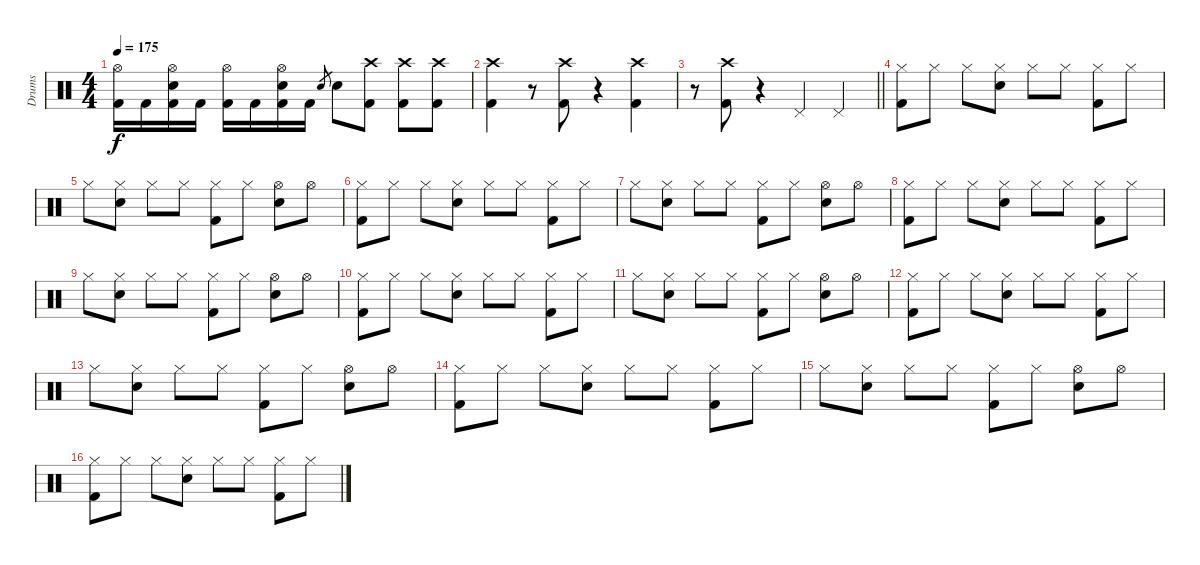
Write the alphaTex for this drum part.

\track ("Drums" "Drums") {instrument percussion}
\staff {score}
\articulation defaults
\ts (4 4)
\tempo 175
\clef neutral
\ks c
("Hi-Hat (open)" "Kick (hit) 2").16{dy f} "Kick (hit) 2".16 ("Hi-Hat (open)" "Snare (hit) 2" "Kick (hit) 2").16 "Kick (hit) 2".16 ("Hi-Hat (open)" "Kick (hit) 2").16 "Kick (hit) 2".16 ("Hi-Hat (open)" "Snare (hit) 2" "Kick (hit) 2").16 "Kick (hit) 2".16 "Snare (hit) 2".8{gr} "Snare (hit) 2".8 ("Crash high (hit)" "Kick (hit) 2").8 ("Crash high (hit)" "Kick (hit) 2").8 ("Crash high (hit)" "Kick (hit) 2").8 |
("Crash high (hit)" "Kick (hit) 2").4 r.8 ("Crash high (hit)" "Kick (hit) 2").8 r.4 ("Crash high (hit)" "Kick (hit) 2").4 |
\barLineRight lightlight
r.8 ("Crash high (hit)" "Kick (hit) 2").8 r.4 "Pedal Hi-Hat (hit)".4 "Pedal Hi-Hat (hit)".4 |
("Hi-Hat (closed)" "Kick (hit) 2").8 "Hi-Hat (closed)".8 "Hi-Hat (closed)".8 ("Hi-Hat (closed)" "Snare (hit) 2").8 "Hi-Hat (closed)".8 "Hi-Hat (closed)".8 ("Hi-Hat (closed)" "Kick (hit) 2").8 "Hi-Hat (closed)".8 |
"Hi-Hat (closed)".8 ("Hi-Hat (closed)" "Snare (hit) 2").8 "Hi-Hat (closed)".8 "Hi-Hat (closed)".8 ("Hi-Hat (closed)" "Kick (hit) 2").8 "Hi-Hat (closed)".8 ("Hi-Hat (open)" "Snare (hit) 2").8 "Hi-Hat (open)".8 |
("Hi-Hat (closed)" "Kick (hit) 2").8 "Hi-Hat (closed)".8 "Hi-Hat (closed)".8 ("Hi-Hat (closed)" "Snare (hit) 2").8 "Hi-Hat (closed)".8 "Hi-Hat (closed)".8 ("Hi-Hat (closed)" "Kick (hit) 2").8 "Hi-Hat (closed)".8 |
"Hi-Hat (closed)".8 ("Hi-Hat (closed)" "Snare (hit) 2").8 "Hi-Hat (closed)".8 "Hi-Hat (closed)".8 ("Hi-Hat (closed)" "Kick (hit) 2").8 "Hi-Hat (closed)".8 ("Hi-Hat (open)" "Snare (hit) 2").8 "Hi-Hat (open)".8 |
("Hi-Hat (closed)" "Kick (hit) 2").8 "Hi-Hat (closed)".8 "Hi-Hat (closed)".8 ("Hi-Hat (closed)" "Snare (hit) 2").8 "Hi-Hat (closed)".8 "Hi-Hat (closed)".8 ("Hi-Hat (closed)" "Kick (hit) 2").8 "Hi-Hat (closed)".8 |
"Hi-Hat (closed)".8 ("Hi-Hat (closed)" "Snare (hit) 2").8 "Hi-Hat (closed)".8 "Hi-Hat (closed)".8 ("Hi-Hat (closed)" "Kick (hit) 2").8 "Hi-Hat (closed)".8 ("Hi-Hat (open)" "Snare (hit) 2").8 "Hi-Hat (open)".8 |
("Hi-Hat (closed)" "Kick (hit) 2").8 "Hi-Hat (closed)".8 "Hi-Hat (closed)".8 ("Hi-Hat (closed)" "Snare (hit) 2").8 "Hi-Hat (closed)".8 "Hi-Hat (closed)".8 ("Hi-Hat (closed)" "Kick (hit) 2").8 "Hi-Hat (closed)".8 |
"Hi-Hat (closed)".8 ("Hi-Hat (closed)" "Snare (hit) 2").8 "Hi-Hat (closed)".8 "Hi-Hat (closed)".8 ("Hi-Hat (closed)" "Kick (hit) 2").8 "Hi-Hat (closed)".8 ("Hi-Hat (open)" "Snare (hit) 2").8 "Hi-Hat (open)".8 |
("Hi-Hat (closed)" "Kick (hit) 2").8 "Hi-Hat (closed)".8 "Hi-Hat (closed)".8 ("Hi-Hat (closed)" "Snare (hit) 2").8 "Hi-Hat (closed)".8 "Hi-Hat (closed)".8 ("Hi-Hat (closed)" "Kick (hit) 2").8 "Hi-Hat (closed)".8 |
"Hi-Hat (closed)".8 ("Hi-Hat (closed)" "Snare (hit) 2").8 "Hi-Hat (closed)".8 "Hi-Hat (closed)".8 ("Hi-Hat (closed)" "Kick (hit) 2").8 "Hi-Hat (closed)".8 ("Hi-Hat (open)" "Snare (hit) 2").8 "Hi-Hat (open)".8 |
("Hi-Hat (closed)" "Kick (hit) 2").8 "Hi-Hat (closed)".8 "Hi-Hat (closed)".8 ("Hi-Hat (closed)" "Snare (hit) 2").8 "Hi-Hat (closed)".8 "Hi-Hat (closed)".8 ("Hi-Hat (closed)" "Kick (hit) 2").8 "Hi-Hat (closed)".8 |
"Hi-Hat (closed)".8 ("Hi-Hat (closed)" "Snare (hit) 2").8 "Hi-Hat (closed)".8 "Hi-Hat (closed)".8 ("Hi-Hat (closed)" "Kick (hit) 2").8 "Hi-Hat (closed)".8 ("Hi-Hat (open)" "Snare (hit) 2").8 "Hi-Hat (open)".8 |
("Hi-Hat (closed)" "Kick (hit) 2").8 "Hi-Hat (closed)".8 "Hi-Hat (closed)".8 ("Hi-Hat (closed)" "Snare (hit) 2").8 "Hi-Hat (closed)".8 "Hi-Hat (closed)".8 ("Hi-Hat (closed)" "Kick (hit) 2").8 "Hi-Hat (closed)".8
